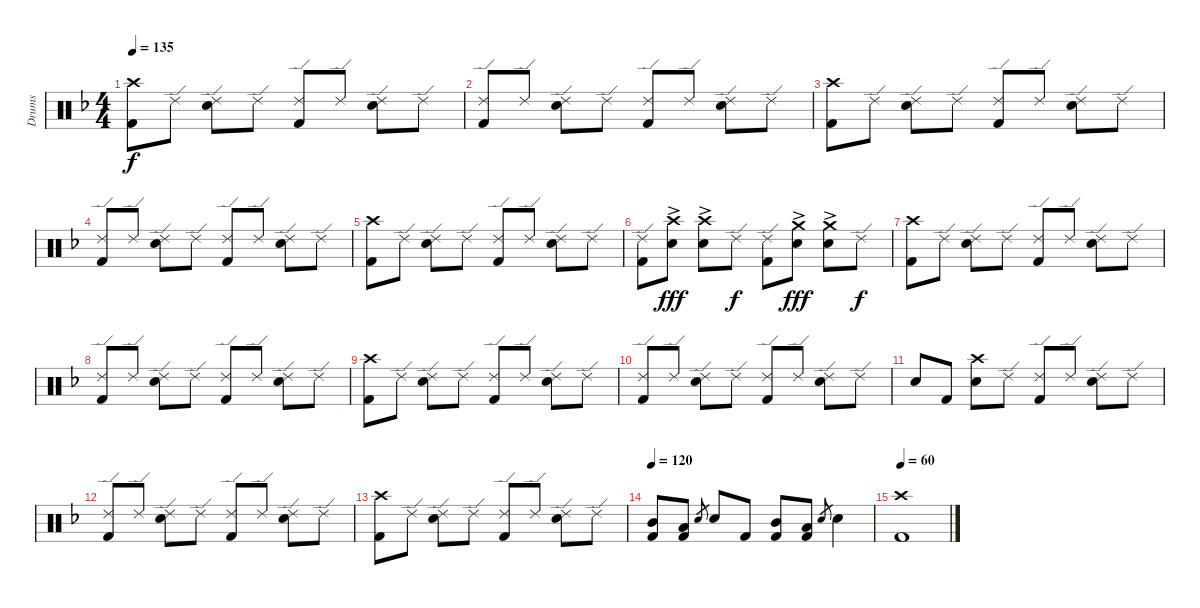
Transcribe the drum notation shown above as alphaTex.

\track ("Drums" "Drums") {instrument percussion}
\staff {score}
\articulation defaults
\ts (4 4)
\tempo 135
\clef neutral
\ks f
("Crash high (hit)" "Kick (hit) 2").8{dy f} "Ride (edge) 2".8 ("Ride (edge) 2" "Electric Snare (hit)").8 "Ride (edge) 2".8 ("Ride (edge) 2" "Kick (hit) 2").8 "Ride (edge) 2".8 ("Ride (edge) 2" "Electric Snare (hit)").8 "Ride (edge) 2".8 |
("Ride (edge) 2" "Kick (hit) 2").8 "Ride (edge) 2".8 ("Ride (edge) 2" "Electric Snare (hit)").8 "Ride (edge) 2".8 ("Ride (edge) 2" "Kick (hit) 2").8 "Ride (edge) 2".8 ("Ride (edge) 2" "Electric Snare (hit)").8 "Ride (edge) 2".8 |
("Crash high (hit)" "Kick (hit) 2").8 "Ride (edge) 2".8 ("Ride (edge) 2" "Electric Snare (hit)").8 "Ride (edge) 2".8 ("Ride (edge) 2" "Kick (hit) 2").8 "Ride (edge) 2".8 ("Ride (edge) 2" "Electric Snare (hit)").8 "Ride (edge) 2".8 |
("Ride (edge) 2" "Kick (hit) 2").8 "Ride (edge) 2".8 ("Ride (edge) 2" "Electric Snare (hit)").8 "Ride (edge) 2".8 ("Ride (edge) 2" "Kick (hit) 2").8 "Ride (edge) 2".8 ("Ride (edge) 2" "Electric Snare (hit)").8 "Ride (edge) 2".8 |
("Crash high (hit)" "Kick (hit) 2").8 "Ride (edge) 2".8 ("Ride (edge) 2" "Electric Snare (hit)").8 "Ride (edge) 2".8 ("Ride (edge) 2" "Kick (hit) 2").8 "Ride (edge) 2".8 ("Ride (edge) 2" "Electric Snare (hit)").8 "Ride (edge) 2".8 |
("Ride (edge) 2" "Kick (hit) 2").8 ("Crash high (hit)" "Electric Snare (hit)"{ac}).8{dy fff} ("Crash high (hit)" "Electric Snare (hit)"{ac}).8 "Ride (edge) 2".8{dy f} ("Ride (edge) 2" "Kick (hit) 2").8 ("Crash medium (hit)" "Electric Snare (hit)"{ac}).8{dy fff} ("Crash medium (hit)" "Electric Snare (hit)"{ac}).8 "Ride (edge) 2".8{dy f} |
("Crash high (hit)" "Kick (hit) 2").8 "Ride (edge) 2".8 ("Ride (edge) 2" "Electric Snare (hit)").8 "Ride (edge) 2".8 ("Ride (edge) 2" "Kick (hit) 2").8 "Ride (edge) 2".8 ("Ride (edge) 2" "Electric Snare (hit)").8 "Ride (edge) 2".8 |
("Ride (edge) 2" "Kick (hit) 2").8 "Ride (edge) 2".8 ("Ride (edge) 2" "Electric Snare (hit)").8 "Ride (edge) 2".8 ("Ride (edge) 2" "Kick (hit) 2").8 "Ride (edge) 2".8 ("Ride (edge) 2" "Electric Snare (hit)").8 "Ride (edge) 2".8 |
("Crash high (hit)" "Kick (hit) 2").8 "Ride (edge) 2".8 ("Ride (edge) 2" "Electric Snare (hit)").8 "Ride (edge) 2".8 ("Ride (edge) 2" "Kick (hit) 2").8 "Ride (edge) 2".8 ("Ride (edge) 2" "Electric Snare (hit)").8 "Ride (edge) 2".8 |
("Ride (edge) 2" "Kick (hit) 2").8 "Ride (edge) 2".8 ("Ride (edge) 2" "Electric Snare (hit)").8 "Ride (edge) 2".8 ("Ride (edge) 2" "Kick (hit) 2").8 "Ride (edge) 2".8 ("Ride (edge) 2" "Electric Snare (hit)").8 "Ride (edge) 2".8 |
"Electric Snare (hit)".8 "Kick (hit) 2".8 ("Crash high (hit)" "Electric Snare (hit)").8 "Ride (edge) 2".8 ("Ride (edge) 2" "Kick (hit) 2").8 "Ride (edge) 2".8 ("Ride (edge) 2" "Electric Snare (hit)").8 "Ride (edge) 2".8 |
("Ride (edge) 2" "Kick (hit) 2").8 "Ride (edge) 2".8 ("Ride (edge) 2" "Electric Snare (hit)").8 "Ride (edge) 2".8 ("Ride (edge) 2" "Kick (hit) 2").8 "Ride (edge) 2".8 ("Ride (edge) 2" "Electric Snare (hit)").8 "Ride (edge) 2".8 |
("Crash high (hit)" "Kick (hit) 2").8 "Ride (edge) 2".8 ("Ride (edge) 2" "Electric Snare (hit)").8 "Ride (edge) 2".8 ("Ride (edge) 2" "Kick (hit) 2").8 "Ride (edge) 2".8 ("Ride (edge) 2" "Electric Snare (hit)").8 "Ride (edge) 2".8 |
\tempo 120
("Mid Tom (hit)" "Kick (hit) 2").8 ("Low Tom (hit)" "Kick (hit) 2").8 "Snare (hit) 2".8{gr} "Electric Snare (hit)".8 "Kick (hit) 2".8 ("Mid Tom (hit)" "Kick (hit) 2").8 ("Low Tom (hit)" "Kick (hit) 2").8 "Snare (hit) 2".8{gr} "Electric Snare (hit)".4 |
\tempo 60
("Crash high (hit)" "Kick (hit) 2").1
